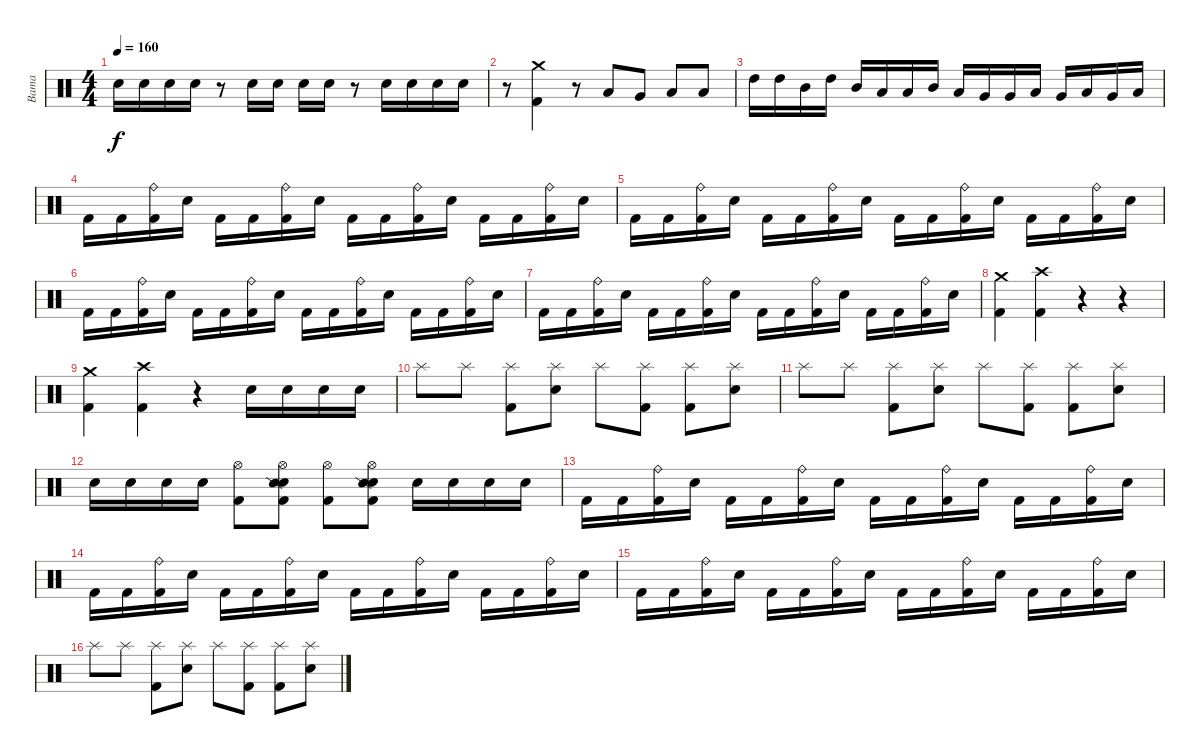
\track ("Bama" "Bama") {instrument percussion}
\staff {score}
\articulation defaults
\ts (4 4)
\tempo 160
\clef neutral
\ks c "Electric Snare (hit)".16{dy f} "Electric Snare (hit)".16 "Electric Snare (hit)".16 "Electric Snare (hit)".16
r.8 "Electric Snare (hit)".16 "Electric Snare (hit)".16 "Electric Snare (hit)".16 "Electric Snare (hit)".16 r.8 "Electric Snare (hit)".16 "Electric Snare (hit)".16 "Electric Snare (hit)".16 "Electric Snare (hit)".16 |
r.8 ("Crash medium (hit)" "Kick (hit) 2").4 r.8 "Low Tom (hit)".8{volume 16} "Very Low Tom (hit)".8 "Low Tom (hit)".8 "Low Floor Tom (hit)".8 |
"High Tom (hit)".16{volume 13} "High Tom (hit)".16 "Mid Tom (hit)".16 "High Tom (hit)".16 "Mid Tom (hit)".16 "Low Tom (hit)".16 "Low Tom (hit)".16 "Mid Tom (hit)".16 "Low Tom (hit)".16 "Very Low Tom (hit)".16 "Very Low Tom (hit)".16 "Low Tom (hit)".16 "Very Low Tom (hit)".16 "Low Floor Tom (hit)".16 "Very Low Tom (hit)".16 "Low Floor Tom (hit)".16 |
"Kick (hit) 2".16 "Kick (hit) 2".16 ("Ride (bell)" "Kick (hit) 2").16 "Electric Snare (hit)".16 "Kick (hit) 2".16 "Kick (hit) 2".16 ("Ride (bell)" "Kick (hit) 2").16 "Electric Snare (hit)".16 "Kick (hit) 2".16 "Kick (hit) 2".16 ("Ride (bell)" "Kick (hit) 2").16 "Electric Snare (hit)".16 "Kick (hit) 2".16 "Kick (hit) 2".16 ("Ride (bell)" "Kick (hit) 2").16 "Electric Snare (hit)".16 |
"Kick (hit) 2".16 "Kick (hit) 2".16 ("Ride (bell)" "Kick (hit) 2").16 "Electric Snare (hit)".16 "Kick (hit) 2".16 "Kick (hit) 2".16 ("Ride (bell)" "Kick (hit) 2").16 "Electric Snare (hit)".16 "Kick (hit) 2".16 "Kick (hit) 2".16 ("Ride (bell)" "Kick (hit) 2").16 "Electric Snare (hit)".16 "Kick (hit) 2".16 "Kick (hit) 2".16 ("Ride (bell)" "Kick (hit) 2").16 "Electric Snare (hit)".16 |
"Kick (hit) 2".16 "Kick (hit) 2".16 ("Ride (bell)" "Kick (hit) 2").16 "Electric Snare (hit)".16 "Kick (hit) 2".16 "Kick (hit) 2".16 ("Ride (bell)" "Kick (hit) 2").16 "Electric Snare (hit)".16 "Kick (hit) 2".16 "Kick (hit) 2".16 ("Ride (bell)" "Kick (hit) 2").16 "Electric Snare (hit)".16 "Kick (hit) 2".16 "Kick (hit) 2".16 ("Ride (bell)" "Kick (hit) 2").16 "Electric Snare (hit)".16 |
"Kick (hit) 2".16 "Kick (hit) 2".16 ("Ride (bell)" "Kick (hit) 2").16 "Electric Snare (hit)".16 "Kick (hit) 2".16 "Kick (hit) 2".16 ("Ride (bell)" "Kick (hit) 2").16 "Electric Snare (hit)".16 "Kick (hit) 2".16 "Kick (hit) 2".16 ("Ride (bell)" "Kick (hit) 2").16 "Electric Snare (hit)".16 "Kick (hit) 2".16 "Kick (hit) 2".16 ("Ride (bell)" "Kick (hit) 2").16 "Electric Snare (hit)".16 |
("Crash medium (hit)" "Kick (hit) 2").4 ("Crash high (hit)" "Kick (hit) 2").4 r.4 r.4 |
("Crash medium (hit)" "Kick (hit) 2").4 ("Crash high (hit)" "Kick (hit) 2").4 r.4 "Electric Snare (hit)".16 "Electric Snare (hit)".16 "Electric Snare (hit)".16 "Electric Snare (hit)".16 |
"Splash (hit)".8 "Splash (hit)".8 ("Splash (hit)" "Kick (hit) 2").8 ("Splash (hit)" "Electric Snare (hit)").8 "Splash (hit)".8 ("Splash (hit)" "Kick (hit) 2").8 ("Splash (hit)" "Kick (hit) 2").8 ("Splash (hit)" "Electric Snare (hit)").8 |
"Splash (hit)".8 "Splash (hit)".8 ("Splash (hit)" "Kick (hit) 2").8 ("Splash (hit)" "Electric Snare (hit)").8 "Splash (hit)".8 ("Splash (hit)" "Kick (hit) 2").8 ("Splash (hit)" "Kick (hit) 2").8 ("Splash (hit)" "Electric Snare (hit)").8 |
"Electric Snare (hit)".16 "Electric Snare (hit)".16 "Electric Snare (hit)".16 "Electric Snare (hit)".16 ("Hi-Hat (open)" "Kick (hit) 2").8 ("Hi-Hat (open)" "Electric Snare (hit)" "Snare (side stick) 2" "Kick (hit) 2").8 ("Hi-Hat (open)" "Kick (hit) 2").8 ("Hi-Hat (open)" "Electric Snare (hit)" "Snare (side stick) 2" "Kick (hit) 2").8 "Electric Snare (hit)".16 "Electric Snare (hit)".16 "Electric Snare (hit)".16 "Electric Snare (hit)".16 |
"Kick (hit) 2".16 "Kick (hit) 2".16 ("Ride (bell)" "Kick (hit) 2").16 "Electric Snare (hit)".16 "Kick (hit) 2".16 "Kick (hit) 2".16 ("Ride (bell)" "Kick (hit) 2").16 "Electric Snare (hit)".16 "Kick (hit) 2".16 "Kick (hit) 2".16 ("Ride (bell)" "Kick (hit) 2").16 "Electric Snare (hit)".16 "Kick (hit) 2".16 "Kick (hit) 2".16 ("Ride (bell)" "Kick (hit) 2").16 "Electric Snare (hit)".16 |
"Kick (hit) 2".16 "Kick (hit) 2".16 ("Ride (bell)" "Kick (hit) 2").16 "Electric Snare (hit)".16 "Kick (hit) 2".16 "Kick (hit) 2".16 ("Ride (bell)" "Kick (hit) 2").16 "Electric Snare (hit)".16 "Kick (hit) 2".16 "Kick (hit) 2".16 ("Ride (bell)" "Kick (hit) 2").16 "Electric Snare (hit)".16 "Kick (hit) 2".16 "Kick (hit) 2".16 ("Ride (bell)" "Kick (hit) 2").16 "Electric Snare (hit)".16 |
"Kick (hit) 2".16 "Kick (hit) 2".16 ("Ride (bell)" "Kick (hit) 2").16 "Electric Snare (hit)".16 "Kick (hit) 2".16 "Kick (hit) 2".16 ("Ride (bell)" "Kick (hit) 2").16 "Electric Snare (hit)".16 "Kick (hit) 2".16 "Kick (hit) 2".16 ("Ride (bell)" "Kick (hit) 2").16 "Electric Snare (hit)".16 "Kick (hit) 2".16 "Kick (hit) 2".16 ("Ride (bell)" "Kick (hit) 2").16 "Electric Snare (hit)".16 |
"Splash (hit)".8 "Splash (hit)".8 ("Splash (hit)" "Kick (hit) 2").8 ("Splash (hit)" "Electric Snare (hit)").8 "Splash (hit)".8 ("Splash (hit)" "Kick (hit) 2").8 ("Splash (hit)" "Kick (hit) 2").8 ("Splash (hit)" "Electric Snare (hit)").8
